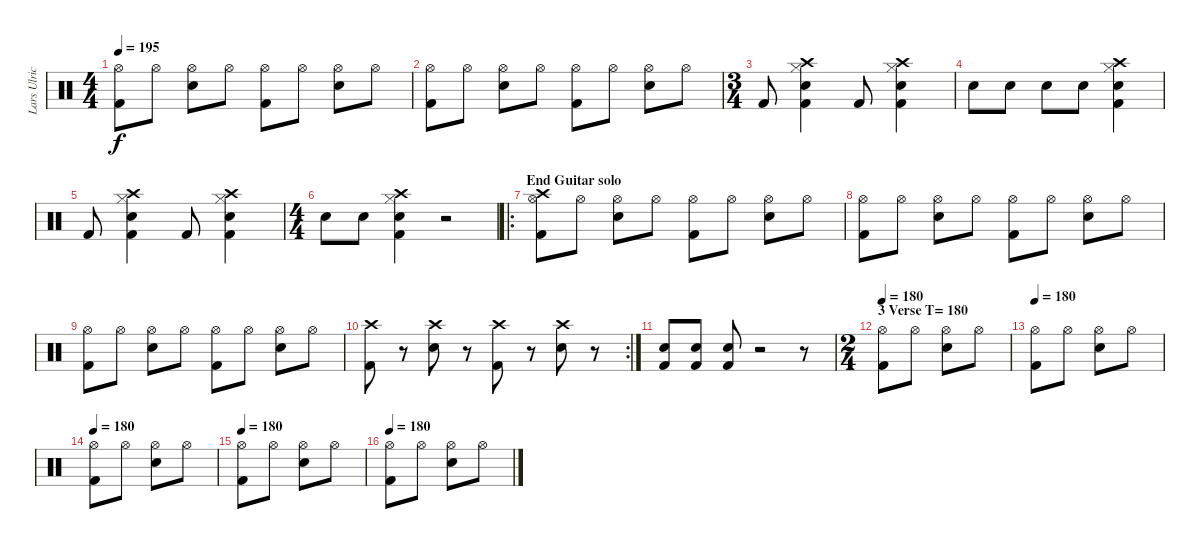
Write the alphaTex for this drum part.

\track ("Lars Ulrich" "Lars Ulric") {instrument percussion}
\staff {score}
\articulation defaults
\ts (4 4)
\tempo 195
\clef neutral
\ks c
("Kick (hit) 2" "Hi-Hat (open)").8{dy f} "Hi-Hat (open)".8 ("Snare (hit) 2" "Hi-Hat (open)").8 "Hi-Hat (open)".8 ("Kick (hit) 2" "Hi-Hat (open)").8 "Hi-Hat (open)".8 ("Snare (hit) 2" "Hi-Hat (open)").8 "Hi-Hat (open)".8 |
("Kick (hit) 2" "Hi-Hat (open)").8 "Hi-Hat (open)".8 ("Snare (hit) 2" "Hi-Hat (open)").8 "Hi-Hat (open)".8 ("Kick (hit) 2" "Hi-Hat (open)").8 "Hi-Hat (open)".8 ("Snare (hit) 2" "Hi-Hat (open)").8 "Hi-Hat (open)".8 |
\ts (3 4)
"Kick (hit) 2".8 ("Kick (hit) 2" "Snare (hit) 2" "Hi-Hat (closed)" "Crash high (hit)").4 "Kick (hit) 2".8 ("Kick (hit) 2" "Snare (hit) 2" "Hi-Hat (closed)" "Crash high (hit)").4 |
"Snare (hit) 2".8 "Snare (hit) 2".8 "Snare (hit) 2".8 "Snare (hit) 2".8 ("Kick (hit) 2" "Snare (hit) 2" "Hi-Hat (closed)" "Crash high (hit)").4 |
"Kick (hit) 2".8 ("Kick (hit) 2" "Snare (hit) 2" "Hi-Hat (closed)" "Crash high (hit)").4 "Kick (hit) 2".8 ("Kick (hit) 2" "Snare (hit) 2" "Hi-Hat (closed)" "Crash high (hit)").4 |
\ts (4 4)
"Snare (hit) 2".8 "Snare (hit) 2".8 ("Kick (hit) 2" "Snare (hit) 2" "Hi-Hat (closed)" "Crash high (hit)").4 r.2 |
\ro
\section ("" "End Guitar solo")
("Kick (hit) 2" "Hi-Hat (open)" "Crash high (hit)").8 "Hi-Hat (open)".8 ("Snare (hit) 2" "Hi-Hat (open)").8 "Hi-Hat (open)".8 ("Kick (hit) 2" "Hi-Hat (open)").8 "Hi-Hat (open)".8 ("Snare (hit) 2" "Hi-Hat (open)").8 "Hi-Hat (open)".8 |
("Kick (hit) 2" "Hi-Hat (open)").8 "Hi-Hat (open)".8 ("Snare (hit) 2" "Hi-Hat (open)").8 "Hi-Hat (open)".8 ("Kick (hit) 2" "Hi-Hat (open)").8 "Hi-Hat (open)".8 ("Snare (hit) 2" "Hi-Hat (open)").8 "Hi-Hat (open)".8 |
("Kick (hit) 2" "Hi-Hat (open)").8 "Hi-Hat (open)".8 ("Snare (hit) 2" "Hi-Hat (open)").8 "Hi-Hat (open)".8 ("Kick (hit) 2" "Hi-Hat (open)").8 "Hi-Hat (open)".8 ("Snare (hit) 2" "Hi-Hat (open)").8 "Hi-Hat (open)".8 |
\rc 2
("Crash high (hit)" "Kick (hit) 2").8 r.8 ("Crash high (hit)" "Snare (hit) 2").8 r.8 ("Crash high (hit)" "Kick (hit) 2").8 r.8 ("Crash high (hit)" "Snare (hit) 2").8 r.8 |
("Kick (hit) 2" "Snare (hit) 2").8 ("Kick (hit) 2" "Snare (hit) 2").8 ("Kick (hit) 2" "Snare (hit) 2").8 r.2 r.8 |
\ts (2 4)
\section ("" "3 Verse T= 180")
\tempo 180
("Kick (hit) 2" "Hi-Hat (open)").8 "Hi-Hat (open)".8 ("Snare (hit) 2" "Hi-Hat (open)").8 "Hi-Hat (open)".8 |
\tempo 180
("Kick (hit) 2" "Hi-Hat (open)").8 "Hi-Hat (open)".8 ("Snare (hit) 2" "Hi-Hat (open)").8 "Hi-Hat (open)".8 |
\tempo 180
("Kick (hit) 2" "Hi-Hat (open)").8 "Hi-Hat (open)".8 ("Snare (hit) 2" "Hi-Hat (open)").8 "Hi-Hat (open)".8 |
\tempo 180
("Kick (hit) 2" "Hi-Hat (open)").8 "Hi-Hat (open)".8 ("Snare (hit) 2" "Hi-Hat (open)").8 "Hi-Hat (open)".8 |
\tempo 180
("Kick (hit) 2" "Hi-Hat (open)").8 "Hi-Hat (open)".8 ("Snare (hit) 2" "Hi-Hat (open)").8 "Hi-Hat (open)".8
